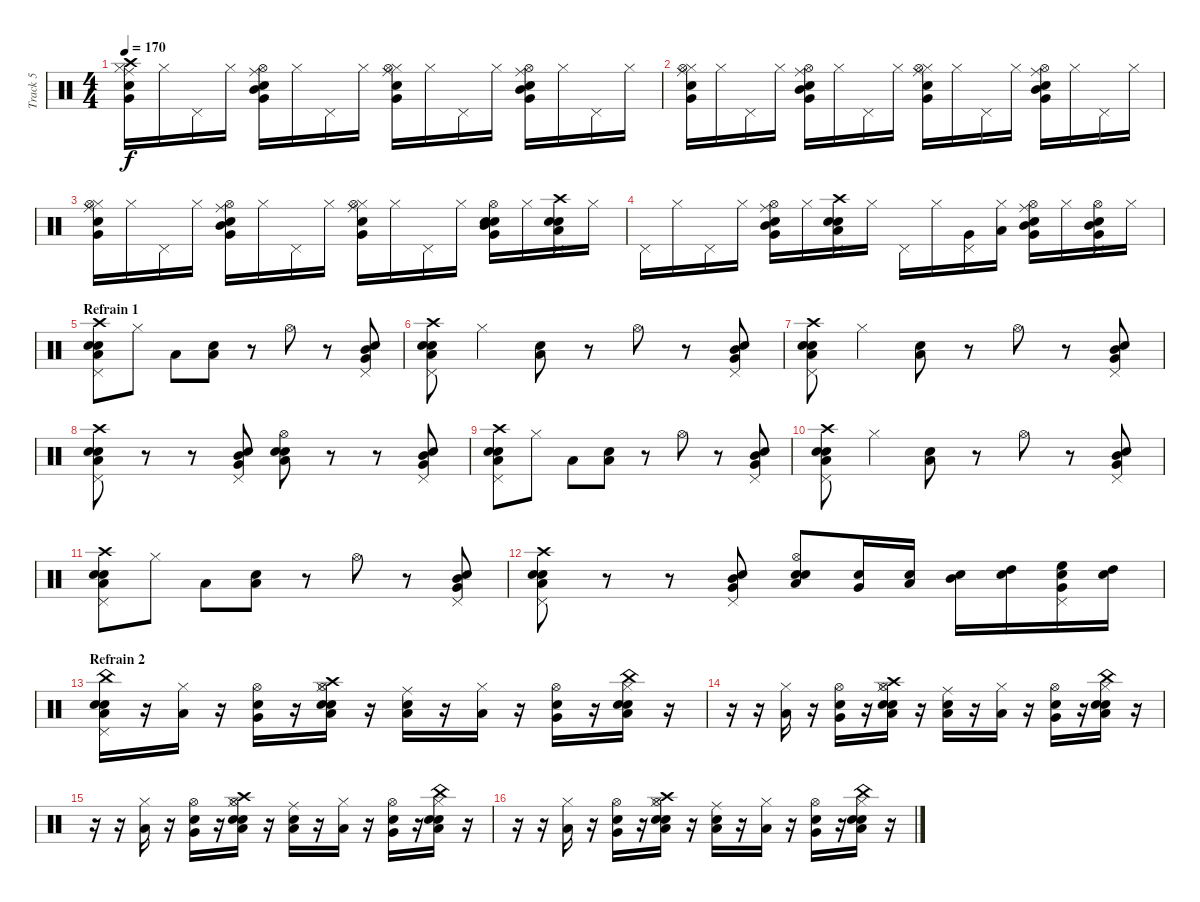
\track ("Track 5" "Track 5") {instrument percussion}
\staff {score}
\articulation defaults
\ts (4 4)
\tempo 170
\clef neutral
\ks c
("Very Low Tom (hit)" "Snare (hit) 2" "Hi-Hat (closed)" "Ride (middle)" "Crash high (hit)").16{dy f} "Hi-Hat (closed)".16 "Pedal Hi-Hat (hit)".16 "Hi-Hat (closed)".16 ("Ride (middle)" "Very Low Tom (hit)" "Mid Tom (hit)" "Electric Snare (hit)" "Hi-Hat (open)").16 "Hi-Hat (closed)".16 "Pedal Hi-Hat (hit)".16 "Hi-Hat (closed)".16 ("Very Low Tom (hit)" "Snare (hit) 2" "Hi-Hat (closed)" "Ride (middle)" "Hi-Hat (open)").16 "Hi-Hat (closed)".16 "Pedal Hi-Hat (hit)".16 "Hi-Hat (closed)".16 ("Ride (middle)" "Very Low Tom (hit)" "Mid Tom (hit)" "Electric Snare (hit)" "Hi-Hat (open)").16 "Hi-Hat (closed)".16 "Pedal Hi-Hat (hit)".16 "Hi-Hat (closed)".16 |
("Very Low Tom (hit)" "Snare (hit) 2" "Hi-Hat (closed)" "Ride (middle)" "Hi-Hat (open)").16 "Hi-Hat (closed)".16 "Pedal Hi-Hat (hit)".16 "Hi-Hat (closed)".16 ("Ride (middle)" "Very Low Tom (hit)" "Mid Tom (hit)" "Electric Snare (hit)" "Hi-Hat (open)").16 "Hi-Hat (closed)".16 "Pedal Hi-Hat (hit)".16 "Hi-Hat (closed)".16 ("Very Low Tom (hit)" "Snare (hit) 2" "Hi-Hat (closed)" "Ride (middle)" "Hi-Hat (open)").16 "Hi-Hat (closed)".16 "Pedal Hi-Hat (hit)".16 "Hi-Hat (closed)".16 ("Ride (middle)" "Very Low Tom (hit)" "Mid Tom (hit)" "Electric Snare (hit)" "Hi-Hat (open)").16 "Hi-Hat (closed)".16 "Pedal Hi-Hat (hit)".16 "Hi-Hat (closed)".16 |
("Very Low Tom (hit)" "Snare (hit) 2" "Hi-Hat (closed)" "Ride (middle)" "Hi-Hat (open)").16 "Hi-Hat (closed)".16 "Pedal Hi-Hat (hit)".16 "Hi-Hat (closed)".16 ("Ride (middle)" "Very Low Tom (hit)" "Mid Tom (hit)" "Electric Snare (hit)" "Hi-Hat (open)").16 "Hi-Hat (closed)".16 "Pedal Hi-Hat (hit)".16 "Hi-Hat (closed)".16 ("Very Low Tom (hit)" "Snare (hit) 2" "Hi-Hat (closed)" "Ride (middle)" "Hi-Hat (open)").16 "Hi-Hat (closed)".16 "Pedal Hi-Hat (hit)".16 "Hi-Hat (closed)".16 ("Hi-Hat (open)" "Very Low Tom (hit)" "Mid Tom (hit)" "Electric Snare (hit)" "Snare (hit) 2").16 "Hi-Hat (closed)".16 ("Pedal Hi-Hat (hit)" "Low Tom (hit)" "Electric Snare (hit)" "Snare (hit) 2" "Crash high (hit)").16 "Hi-Hat (closed)".16 |
"Pedal Hi-Hat (hit)".16 "Hi-Hat (closed)".16 "Pedal Hi-Hat (hit)".16 "Hi-Hat (closed)".16 ("Ride (middle)" "Very Low Tom (hit)" "Mid Tom (hit)" "Electric Snare (hit)" "Hi-Hat (open)").16 "Hi-Hat (closed)".16 ("Pedal Hi-Hat (hit)" "Low Tom (hit)" "Electric Snare (hit)" "Snare (hit) 2" "Crash high (hit)").16 "Hi-Hat (closed)".16 "Pedal Hi-Hat (hit)".16 "Hi-Hat (closed)".16 ("Pedal Hi-Hat (hit)" "Very Low Tom (hit)").16 ("Hi-Hat (closed)" "Low Tom (hit)").16 ("Ride (middle)" "Very Low Tom (hit)" "Mid Tom (hit)" "Electric Snare (hit)" "Hi-Hat (open)").16 "Hi-Hat (closed)".16 ("Pedal Hi-Hat (hit)" "Very Low Tom (hit)" "Mid Tom (hit)" "Electric Snare (hit)" "Hi-Hat (open)").16 "Hi-Hat (closed)".16 |
\section ("" "Refrain 1")
("Pedal Hi-Hat (hit)" "Low Tom (hit)" "Electric Snare (hit)" "Snare (hit) 2" "Crash high (hit)").8 "Hi-Hat (closed)".8 "Low Floor Tom (hit)".8 ("Electric Snare (hit)" "Low Tom (hit)").8 r.8 "Hi-Hat (open)".8 r.8 ("Pedal Hi-Hat (hit)" "Very Low Tom (hit)" "Mid Tom (hit)" "Electric Snare (hit)").8 |
("Pedal Hi-Hat (hit)" "Low Tom (hit)" "Electric Snare (hit)" "Snare (hit) 2" "Crash high (hit)").8 "Hi-Hat (closed)".4 ("Electric Snare (hit)" "Low Tom (hit)").8 r.8 "Hi-Hat (open)".8 r.8 ("Pedal Hi-Hat (hit)" "Very Low Tom (hit)" "Mid Tom (hit)" "Electric Snare (hit)").8 |
("Pedal Hi-Hat (hit)" "Low Tom (hit)" "Electric Snare (hit)" "Snare (hit) 2" "Crash high (hit)").8 "Hi-Hat (closed)".4 ("Electric Snare (hit)" "Low Tom (hit)").8 r.8 "Hi-Hat (open)".8 r.8 ("Pedal Hi-Hat (hit)" "Very Low Tom (hit)" "Mid Tom (hit)" "Electric Snare (hit)").8 |
("Pedal Hi-Hat (hit)" "Low Tom (hit)" "Electric Snare (hit)" "Snare (hit) 2" "Crash high (hit)").8 r.8 r.8 ("Pedal Hi-Hat (hit)" "Very Low Tom (hit)" "Mid Tom (hit)" "Electric Snare (hit)").8 ("Low Tom (hit)" "Electric Snare (hit)" "Snare (hit) 2" "Hi-Hat (open)").8 r.8 r.8 ("Pedal Hi-Hat (hit)" "Very Low Tom (hit)" "Mid Tom (hit)" "Electric Snare (hit)").8 |
("Pedal Hi-Hat (hit)" "Low Tom (hit)" "Electric Snare (hit)" "Snare (hit) 2" "Crash high (hit)").8 "Hi-Hat (closed)".8 "Low Floor Tom (hit)".8 ("Electric Snare (hit)" "Low Tom (hit)").8 r.8 "Hi-Hat (open)".8 r.8 ("Pedal Hi-Hat (hit)" "Very Low Tom (hit)" "Mid Tom (hit)" "Electric Snare (hit)").8 |
("Pedal Hi-Hat (hit)" "Low Tom (hit)" "Electric Snare (hit)" "Snare (hit) 2" "Crash high (hit)").8 "Hi-Hat (closed)".4 ("Electric Snare (hit)" "Low Tom (hit)").8 r.8 "Hi-Hat (open)".8 r.8 ("Pedal Hi-Hat (hit)" "Very Low Tom (hit)" "Mid Tom (hit)" "Electric Snare (hit)").8 |
("Pedal Hi-Hat (hit)" "Low Tom (hit)" "Electric Snare (hit)" "Snare (hit) 2" "Crash high (hit)").8 "Hi-Hat (closed)".8 "Low Floor Tom (hit)".8 ("Electric Snare (hit)" "Low Tom (hit)").8 r.8 "Hi-Hat (open)".8 r.8 ("Pedal Hi-Hat (hit)" "Very Low Tom (hit)" "Mid Tom (hit)" "Electric Snare (hit)").8 |
("Pedal Hi-Hat (hit)" "Low Tom (hit)" "Electric Snare (hit)" "Snare (hit) 2" "Crash high (hit)").8 r.8 r.8 ("Pedal Hi-Hat (hit)" "Very Low Tom (hit)" "Mid Tom (hit)" "Electric Snare (hit)").8 ("Low Tom (hit)" "Electric Snare (hit)" "Snare (hit) 2" "Hi-Hat (open)").8 ("Very Low Tom (hit)" "Electric Snare (hit)").16 ("Low Tom (hit)" "Snare (hit) 2").16 ("Mid Tom (hit)" "Electric Snare (hit)").16 ("High Tom (hit)" "Snare (hit) 2").16 ("Pedal Hi-Hat (hit)" "Very Low Tom (hit)" "High Floor Tom (hit)" "Electric Snare (hit)").16 ("High Tom (hit)" "Snare (hit) 2").16 |
\section ("" "Refrain 2")
("Pedal Hi-Hat (hit)" "Low Tom (hit)" "Electric Snare (hit)" "Snare (hit) 2" "China (hit)").16 r.16 ("Low Tom (hit)" "Hi-Hat (closed)").16 r.16 ("Very Low Tom (hit)" "Electric Snare (hit)" "Hi-Hat (open)").16 r.16 ("Low Tom (hit)" "Hi-Hat (closed)" "Snare (hit) 2" "Crash high (hit)" "Electric Snare (hit)" "Hi-Hat (open)").16 r.16 ("Ride (middle)" "Low Tom (hit)" "Snare (hit) 2").16 r.16 ("Low Tom (hit)" "Hi-Hat (closed)").16 r.16 ("Very Low Tom (hit)" "Electric Snare (hit)" "Hi-Hat (open)").16 r.16 ("Low Tom (hit)" "Hi-Hat (closed)" "Snare (hit) 2" "China (hit)" "Electric Snare (hit)").16 r.16 |
r.16 r.16 ("Low Tom (hit)" "Hi-Hat (closed)").16 r.16 ("Very Low Tom (hit)" "Electric Snare (hit)" "Hi-Hat (open)").16 r.16 ("Low Tom (hit)" "Hi-Hat (closed)" "Snare (hit) 2" "Crash high (hit)" "Electric Snare (hit)" "Hi-Hat (open)").16 r.16 ("Ride (middle)" "Low Tom (hit)" "Snare (hit) 2").16 r.16 ("Low Tom (hit)" "Hi-Hat (closed)").16 r.16 ("Very Low Tom (hit)" "Electric Snare (hit)" "Hi-Hat (open)").16 r.16 ("Low Tom (hit)" "Hi-Hat (closed)" "Snare (hit) 2" "China (hit)" "Electric Snare (hit)").16 r.16 |
r.16 r.16 ("Low Tom (hit)" "Hi-Hat (closed)").16 r.16 ("Very Low Tom (hit)" "Electric Snare (hit)" "Hi-Hat (open)").16 r.16 ("Low Tom (hit)" "Hi-Hat (closed)" "Snare (hit) 2" "Crash high (hit)" "Electric Snare (hit)" "Hi-Hat (open)").16 r.16 ("Ride (middle)" "Low Tom (hit)" "Snare (hit) 2").16 r.16 ("Low Tom (hit)" "Hi-Hat (closed)").16 r.16 ("Very Low Tom (hit)" "Electric Snare (hit)" "Hi-Hat (open)").16 r.16 ("Low Tom (hit)" "Hi-Hat (closed)" "Snare (hit) 2" "China (hit)" "Electric Snare (hit)").16 r.16 |
r.16 r.16 ("Low Tom (hit)" "Hi-Hat (closed)").16 r.16 ("Very Low Tom (hit)" "Electric Snare (hit)" "Hi-Hat (open)").16 r.16 ("Low Tom (hit)" "Hi-Hat (closed)" "Snare (hit) 2" "Crash high (hit)" "Electric Snare (hit)" "Hi-Hat (open)").16 r.16 ("Ride (middle)" "Low Tom (hit)" "Snare (hit) 2").16 r.16 ("Low Tom (hit)" "Hi-Hat (closed)").16 r.16 ("Very Low Tom (hit)" "Electric Snare (hit)" "Hi-Hat (open)").16 r.16 ("Low Tom (hit)" "Hi-Hat (closed)" "Snare (hit) 2" "China (hit)" "Electric Snare (hit)").16 r.16
